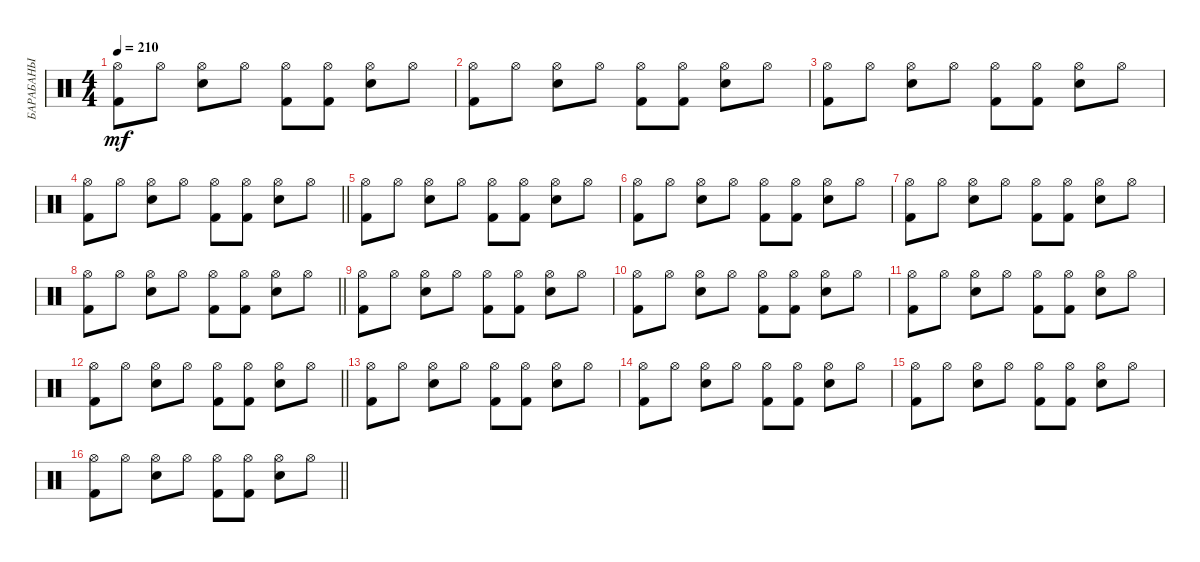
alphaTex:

\track ("БАРАБАНЫ" "БАРАБАНЫ") {instrument percussion}
\staff {score}
\articulation defaults
\ts (4 4)
\tempo 210
\clef neutral
\ks c
("Hi-Hat (open)" "Kick (hit) 2").8{dy mf} "Hi-Hat (open)".8 ("Hi-Hat (open)" "Snare (hit) 2").8 "Hi-Hat (open)".8 ("Hi-Hat (open)" "Kick (hit) 2").8 ("Hi-Hat (open)" "Kick (hit) 2").8 ("Hi-Hat (open)" "Snare (hit) 2").8 "Hi-Hat (open)".8 |
("Hi-Hat (open)" "Kick (hit) 2").8 "Hi-Hat (open)".8 ("Hi-Hat (open)" "Snare (hit) 2").8 "Hi-Hat (open)".8 ("Hi-Hat (open)" "Kick (hit) 2").8 ("Hi-Hat (open)" "Kick (hit) 2").8 ("Hi-Hat (open)" "Snare (hit) 2").8 "Hi-Hat (open)".8 |
("Hi-Hat (open)" "Kick (hit) 2").8 "Hi-Hat (open)".8 ("Hi-Hat (open)" "Snare (hit) 2").8 "Hi-Hat (open)".8 ("Hi-Hat (open)" "Kick (hit) 2").8 ("Hi-Hat (open)" "Kick (hit) 2").8 ("Hi-Hat (open)" "Snare (hit) 2").8 "Hi-Hat (open)".8 |
\barLineRight lightlight
("Hi-Hat (open)" "Kick (hit) 2").8 "Hi-Hat (open)".8 ("Hi-Hat (open)" "Snare (hit) 2").8 "Hi-Hat (open)".8 ("Hi-Hat (open)" "Kick (hit) 2").8 ("Hi-Hat (open)" "Kick (hit) 2").8 ("Hi-Hat (open)" "Snare (hit) 2").8 "Hi-Hat (open)".8 |
("Hi-Hat (open)" "Kick (hit) 2").8 "Hi-Hat (open)".8 ("Hi-Hat (open)" "Snare (hit) 2").8 "Hi-Hat (open)".8 ("Hi-Hat (open)" "Kick (hit) 2").8 ("Hi-Hat (open)" "Kick (hit) 2").8 ("Hi-Hat (open)" "Snare (hit) 2").8 "Hi-Hat (open)".8 |
("Hi-Hat (open)" "Kick (hit) 2").8 "Hi-Hat (open)".8 ("Hi-Hat (open)" "Snare (hit) 2").8 "Hi-Hat (open)".8 ("Hi-Hat (open)" "Kick (hit) 2").8 ("Hi-Hat (open)" "Kick (hit) 2").8 ("Hi-Hat (open)" "Snare (hit) 2").8 "Hi-Hat (open)".8 |
("Hi-Hat (open)" "Kick (hit) 2").8 "Hi-Hat (open)".8 ("Hi-Hat (open)" "Snare (hit) 2").8 "Hi-Hat (open)".8 ("Hi-Hat (open)" "Kick (hit) 2").8 ("Hi-Hat (open)" "Kick (hit) 2").8 ("Hi-Hat (open)" "Snare (hit) 2").8 "Hi-Hat (open)".8 |
\barLineRight lightlight
("Hi-Hat (open)" "Kick (hit) 2").8 "Hi-Hat (open)".8 ("Hi-Hat (open)" "Snare (hit) 2").8 "Hi-Hat (open)".8 ("Hi-Hat (open)" "Kick (hit) 2").8 ("Hi-Hat (open)" "Kick (hit) 2").8 ("Hi-Hat (open)" "Snare (hit) 2").8 "Hi-Hat (open)".8 |
("Hi-Hat (open)" "Kick (hit) 2").8 "Hi-Hat (open)".8 ("Hi-Hat (open)" "Snare (hit) 2").8 "Hi-Hat (open)".8 ("Hi-Hat (open)" "Kick (hit) 2").8 ("Hi-Hat (open)" "Kick (hit) 2").8 ("Hi-Hat (open)" "Snare (hit) 2").8 "Hi-Hat (open)".8 |
("Hi-Hat (open)" "Kick (hit) 2").8 "Hi-Hat (open)".8 ("Hi-Hat (open)" "Snare (hit) 2").8 "Hi-Hat (open)".8 ("Hi-Hat (open)" "Kick (hit) 2").8 ("Hi-Hat (open)" "Kick (hit) 2").8 ("Hi-Hat (open)" "Snare (hit) 2").8 "Hi-Hat (open)".8 |
("Hi-Hat (open)" "Kick (hit) 2").8 "Hi-Hat (open)".8 ("Hi-Hat (open)" "Snare (hit) 2").8 "Hi-Hat (open)".8 ("Hi-Hat (open)" "Kick (hit) 2").8 ("Hi-Hat (open)" "Kick (hit) 2").8 ("Hi-Hat (open)" "Snare (hit) 2").8 "Hi-Hat (open)".8 |
\barLineRight lightlight
("Hi-Hat (open)" "Kick (hit) 2").8 "Hi-Hat (open)".8 ("Hi-Hat (open)" "Snare (hit) 2").8 "Hi-Hat (open)".8 ("Hi-Hat (open)" "Kick (hit) 2").8 ("Hi-Hat (open)" "Kick (hit) 2").8 ("Hi-Hat (open)" "Snare (hit) 2").8 "Hi-Hat (open)".8 |
("Hi-Hat (open)" "Kick (hit) 2").8 "Hi-Hat (open)".8 ("Hi-Hat (open)" "Snare (hit) 2").8 "Hi-Hat (open)".8 ("Hi-Hat (open)" "Kick (hit) 2").8 ("Hi-Hat (open)" "Kick (hit) 2").8 ("Hi-Hat (open)" "Snare (hit) 2").8 "Hi-Hat (open)".8 |
("Hi-Hat (open)" "Kick (hit) 2").8 "Hi-Hat (open)".8 ("Hi-Hat (open)" "Snare (hit) 2").8 "Hi-Hat (open)".8 ("Hi-Hat (open)" "Kick (hit) 2").8 ("Hi-Hat (open)" "Kick (hit) 2").8 ("Hi-Hat (open)" "Snare (hit) 2").8 "Hi-Hat (open)".8 |
("Hi-Hat (open)" "Kick (hit) 2").8 "Hi-Hat (open)".8 ("Hi-Hat (open)" "Snare (hit) 2").8 "Hi-Hat (open)".8 ("Hi-Hat (open)" "Kick (hit) 2").8 ("Hi-Hat (open)" "Kick (hit) 2").8 ("Hi-Hat (open)" "Snare (hit) 2").8 "Hi-Hat (open)".8 |
\barLineRight lightlight
("Hi-Hat (open)" "Kick (hit) 2").8 "Hi-Hat (open)".8 ("Hi-Hat (open)" "Snare (hit) 2").8 "Hi-Hat (open)".8 ("Hi-Hat (open)" "Kick (hit) 2").8 ("Hi-Hat (open)" "Kick (hit) 2").8 ("Hi-Hat (open)" "Snare (hit) 2").8 "Hi-Hat (open)".8
